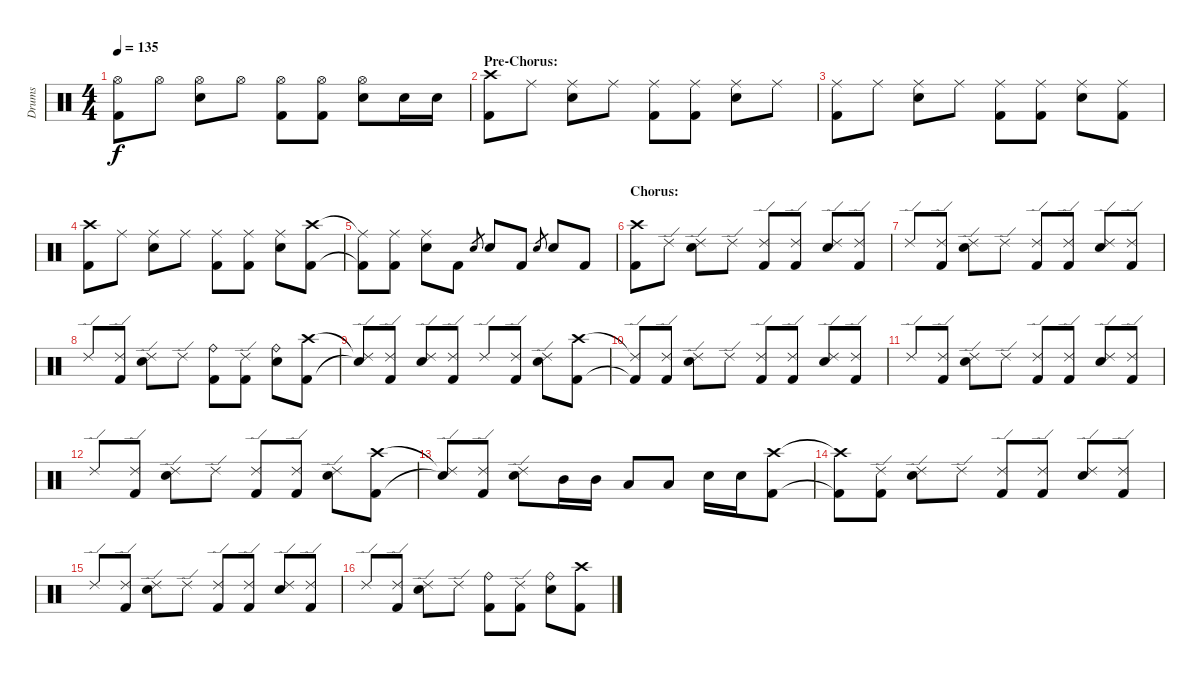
\track ("Drums" "Drums") {instrument percussion}
\staff {score}
\articulation defaults
\ts (4 4)
\tempo 135
\clef neutral
\ks c
("Hi-Hat (open)" "Kick (hit) 2").8{dy f} "Hi-Hat (open)".8 ("Hi-Hat (open)" "Electric Snare (hit)").8 "Hi-Hat (open)".8 ("Hi-Hat (open)" "Kick (hit) 2").8 ("Hi-Hat (open)" "Kick (hit) 2").8 ("Hi-Hat (open)" "Electric Snare (hit)").8 "Electric Snare (hit)".16 "Electric Snare (hit)".16 |
\section ("" "Pre-Chorus:")
("Crash high (hit)" "Kick (hit) 2").8 "Ride (middle)".8 ("Ride (middle)" "Electric Snare (hit)").8 "Ride (middle)".8 ("Ride (middle)" "Kick (hit) 2").8 ("Ride (middle)" "Kick (hit) 2").8 ("Ride (middle)" "Electric Snare (hit)").8 "Ride (middle)".8 |
("Ride (middle)" "Kick (hit) 2").8 "Ride (middle)".8 ("Ride (middle)" "Electric Snare (hit)").8 "Ride (middle)".8 ("Ride (middle)" "Kick (hit) 2").8 ("Ride (middle)" "Kick (hit) 2").8 ("Ride (middle)" "Electric Snare (hit)").8 ("Ride (middle)" "Kick (hit) 2").8 |
("Crash high (hit)" "Kick (hit) 2").8 "Ride (middle)".8 ("Ride (middle)" "Electric Snare (hit)").8 "Ride (middle)".8 ("Ride (middle)" "Kick (hit) 2").8 ("Ride (middle)" "Kick (hit) 2").8 ("Ride (middle)" "Electric Snare (hit)").8 ("Crash high (hit)" "Kick (hit) 2").8 |
("Ride (middle)"{t} "Kick (hit) 2"{t}).8 ("Ride (middle)" "Kick (hit) 2").8 ("Ride (middle)" "Electric Snare (hit)").8 "Kick (hit) 2".8 "Electric Snare (hit)".8{gr} "Electric Snare (hit)".8 "Kick (hit) 2".8 "Electric Snare (hit)".8{gr} "Electric Snare (hit)".8 "Kick (hit) 2".8 |
\section ("" "Chorus:")
("Crash high (hit)" "Kick (hit) 2").8 "Ride (edge) 2".8 ("Ride (edge) 2" "Electric Snare (hit)").8 "Ride (edge) 2".8 ("Ride (edge) 2" "Kick (hit) 2").8 ("Ride (edge) 2" "Kick (hit) 2").8 ("Ride (edge) 2" "Electric Snare (hit)").8 ("Ride (edge) 2" "Kick (hit) 2").8 |
"Ride (edge) 2".8 ("Ride (edge) 2" "Kick (hit) 2").8 ("Ride (edge) 2" "Electric Snare (hit)").8 "Ride (edge) 2".8 ("Ride (edge) 2" "Kick (hit) 2").8 ("Ride (edge) 2" "Kick (hit) 2").8 ("Ride (edge) 2" "Electric Snare (hit)").8 ("Ride (edge) 2" "Kick (hit) 2").8 |
"Ride (edge) 2".8 ("Ride (edge) 2" "Kick (hit) 2").8 ("Ride (edge) 2" "Electric Snare (hit)").8 "Ride (edge) 2".8 ("Ride (bell)" "Kick (hit) 2").8 ("Ride (edge) 2" "Kick (hit) 2").8 ("Ride (bell)" "Electric Snare (hit)").8 ("Crash high (hit)" "Kick (hit) 2").8 |
("Ride (edge) 2"{t} "Snare (hit)"{t}).8 ("Ride (edge) 2" "Kick (hit) 2").8 ("Ride (edge) 2" "Electric Snare (hit)").8 ("Ride (edge) 2" "Kick (hit) 2").8 "Ride (edge) 2".8 ("Ride (edge) 2" "Kick (hit) 2").8 ("Ride (edge) 2" "Electric Snare (hit)").8 ("Crash high (hit)" "Kick (hit) 2").8 |
("Ride (edge) 2"{t} "Kick (hit) 2"{t}).8 ("Ride (edge) 2" "Kick (hit) 2").8 ("Ride (edge) 2" "Electric Snare (hit)").8 "Ride (edge) 2".8 ("Ride (edge) 2" "Kick (hit) 2").8 ("Ride (edge) 2" "Kick (hit) 2").8 ("Ride (edge) 2" "Electric Snare (hit)").8 ("Ride (edge) 2" "Kick (hit) 2").8 |
"Ride (edge) 2".8 ("Ride (edge) 2" "Kick (hit) 2").8 ("Ride (edge) 2" "Electric Snare (hit)").8 "Ride (edge) 2".8 ("Ride (edge) 2" "Kick (hit) 2").8 ("Ride (edge) 2" "Kick (hit) 2").8 ("Ride (edge) 2" "Electric Snare (hit)").8 ("Ride (edge) 2" "Kick (hit) 2").8 |
"Ride (edge) 2".8 ("Ride (edge) 2" "Kick (hit) 2").8 ("Ride (edge) 2" "Electric Snare (hit)").8 "Ride (edge) 2".8 ("Ride (edge) 2" "Kick (hit) 2").8 ("Ride (edge) 2" "Kick (hit) 2").8 ("Ride (edge) 2" "Electric Snare (hit)").8 ("Crash high (hit)" "Kick (hit) 2").8 |
("Ride (edge) 2"{t} "Snare (hit)"{t}).8 ("Ride (edge) 2" "Kick (hit) 2").8 ("Ride (edge) 2" "Electric Snare (hit)").8 "Mid Tom (hit)".16 "Mid Tom (hit)".16 "Low Tom (hit)".8 "Low Tom (hit)".8 "Electric Snare (hit)".16 "Electric Snare (hit)".16 ("Crash high (hit)" "Kick (hit) 2").8 |
("Crash high (hit)"{t} "Kick (hit) 2"{t}).8 ("Ride (edge) 2" "Kick (hit) 2").8 ("Ride (edge) 2" "Electric Snare (hit)").8 "Ride (edge) 2".8 ("Ride (edge) 2" "Kick (hit) 2").8 ("Ride (edge) 2" "Kick (hit) 2").8 ("Ride (edge) 2" "Electric Snare (hit)").8 ("Ride (edge) 2" "Kick (hit) 2").8 |
"Ride (edge) 2".8 ("Ride (edge) 2" "Kick (hit) 2").8 ("Ride (edge) 2" "Electric Snare (hit)").8 "Ride (edge) 2".8 ("Ride (edge) 2" "Kick (hit) 2").8 ("Ride (edge) 2" "Kick (hit) 2").8 ("Ride (edge) 2" "Electric Snare (hit)").8 ("Ride (edge) 2" "Kick (hit) 2").8 |
"Ride (edge) 2".8 ("Ride (edge) 2" "Kick (hit) 2").8 ("Ride (edge) 2" "Electric Snare (hit)").8 "Ride (edge) 2".8 ("Ride (bell)" "Kick (hit) 2").8 ("Ride (edge) 2" "Kick (hit) 2").8 ("Ride (bell)" "Electric Snare (hit)").8 ("Crash high (hit)" "Kick (hit) 2").8
